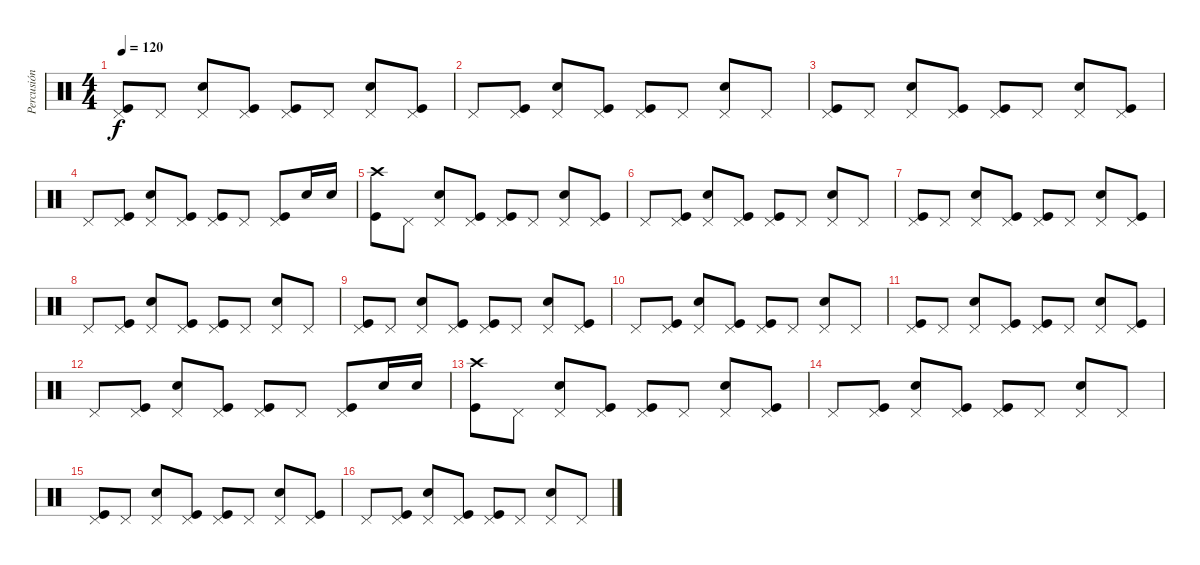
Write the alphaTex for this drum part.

\track ("Percusión" "Percusión") {instrument percussion}
\staff {score}
\articulation defaults
\ts (4 4)
\tempo 120
\clef neutral
\ks c
("Pedal Hi-Hat (hit)" "Kick (hit)").8{dy f} "Pedal Hi-Hat (hit)".8 ("Pedal Hi-Hat (hit)" "Electric Snare (hit)").8 ("Pedal Hi-Hat (hit)" "Kick (hit)").8 ("Pedal Hi-Hat (hit)" "Kick (hit)").8 "Pedal Hi-Hat (hit)".8 ("Pedal Hi-Hat (hit)" "Electric Snare (hit)").8 ("Pedal Hi-Hat (hit)" "Kick (hit)").8 |
"Pedal Hi-Hat (hit)".8 ("Pedal Hi-Hat (hit)" "Kick (hit)").8 ("Pedal Hi-Hat (hit)" "Electric Snare (hit)").8 ("Pedal Hi-Hat (hit)" "Kick (hit)").8 ("Pedal Hi-Hat (hit)" "Kick (hit)").8 "Pedal Hi-Hat (hit)".8 ("Pedal Hi-Hat (hit)" "Electric Snare (hit)").8 "Pedal Hi-Hat (hit)".8 |
("Pedal Hi-Hat (hit)" "Kick (hit)").8 "Pedal Hi-Hat (hit)".8 ("Pedal Hi-Hat (hit)" "Electric Snare (hit)").8 ("Pedal Hi-Hat (hit)" "Kick (hit)").8 ("Pedal Hi-Hat (hit)" "Kick (hit)").8 "Pedal Hi-Hat (hit)".8 ("Pedal Hi-Hat (hit)" "Electric Snare (hit)").8 ("Pedal Hi-Hat (hit)" "Kick (hit)").8 |
"Pedal Hi-Hat (hit)".8 ("Pedal Hi-Hat (hit)" "Kick (hit)").8 ("Pedal Hi-Hat (hit)" "Electric Snare (hit)").8 ("Pedal Hi-Hat (hit)" "Kick (hit)").8 ("Pedal Hi-Hat (hit)" "Kick (hit)").8 "Pedal Hi-Hat (hit)".8 ("Pedal Hi-Hat (hit)" "Kick (hit)").8 "Electric Snare (hit)".16 "Electric Snare (hit)".16 |
("Crash high (hit)" "Kick (hit)").8 "Pedal Hi-Hat (hit)".8 ("Pedal Hi-Hat (hit)" "Electric Snare (hit)").8 ("Pedal Hi-Hat (hit)" "Kick (hit)").8 ("Pedal Hi-Hat (hit)" "Kick (hit)").8 "Pedal Hi-Hat (hit)".8 ("Pedal Hi-Hat (hit)" "Electric Snare (hit)").8 ("Pedal Hi-Hat (hit)" "Kick (hit)").8 |
"Pedal Hi-Hat (hit)".8 ("Pedal Hi-Hat (hit)" "Kick (hit)").8 ("Pedal Hi-Hat (hit)" "Electric Snare (hit)").8 ("Pedal Hi-Hat (hit)" "Kick (hit)").8 ("Pedal Hi-Hat (hit)" "Kick (hit)").8 "Pedal Hi-Hat (hit)".8 ("Pedal Hi-Hat (hit)" "Electric Snare (hit)").8 "Pedal Hi-Hat (hit)".8 |
("Pedal Hi-Hat (hit)" "Kick (hit)").8 "Pedal Hi-Hat (hit)".8 ("Pedal Hi-Hat (hit)" "Electric Snare (hit)").8 ("Pedal Hi-Hat (hit)" "Kick (hit)").8 ("Pedal Hi-Hat (hit)" "Kick (hit)").8 "Pedal Hi-Hat (hit)".8 ("Pedal Hi-Hat (hit)" "Electric Snare (hit)").8 ("Pedal Hi-Hat (hit)" "Kick (hit)").8 |
"Pedal Hi-Hat (hit)".8 ("Pedal Hi-Hat (hit)" "Kick (hit)").8 ("Pedal Hi-Hat (hit)" "Electric Snare (hit)").8 ("Pedal Hi-Hat (hit)" "Kick (hit)").8 ("Pedal Hi-Hat (hit)" "Kick (hit)").8 "Pedal Hi-Hat (hit)".8 ("Pedal Hi-Hat (hit)" "Electric Snare (hit)").8 "Pedal Hi-Hat (hit)".8 |
("Pedal Hi-Hat (hit)" "Kick (hit)").8 "Pedal Hi-Hat (hit)".8 ("Pedal Hi-Hat (hit)" "Electric Snare (hit)").8 ("Pedal Hi-Hat (hit)" "Kick (hit)").8 ("Pedal Hi-Hat (hit)" "Kick (hit)").8 "Pedal Hi-Hat (hit)".8 ("Pedal Hi-Hat (hit)" "Electric Snare (hit)").8 ("Pedal Hi-Hat (hit)" "Kick (hit)").8 |
"Pedal Hi-Hat (hit)".8 ("Pedal Hi-Hat (hit)" "Kick (hit)").8 ("Pedal Hi-Hat (hit)" "Electric Snare (hit)").8 ("Pedal Hi-Hat (hit)" "Kick (hit)").8 ("Pedal Hi-Hat (hit)" "Kick (hit)").8 "Pedal Hi-Hat (hit)".8 ("Pedal Hi-Hat (hit)" "Electric Snare (hit)").8 "Pedal Hi-Hat (hit)".8 |
("Pedal Hi-Hat (hit)" "Kick (hit)").8 "Pedal Hi-Hat (hit)".8 ("Pedal Hi-Hat (hit)" "Electric Snare (hit)").8 ("Pedal Hi-Hat (hit)" "Kick (hit)").8 ("Pedal Hi-Hat (hit)" "Kick (hit)").8 "Pedal Hi-Hat (hit)".8 ("Pedal Hi-Hat (hit)" "Electric Snare (hit)").8 ("Pedal Hi-Hat (hit)" "Kick (hit)").8 |
"Pedal Hi-Hat (hit)".8 ("Pedal Hi-Hat (hit)" "Kick (hit)").8 ("Pedal Hi-Hat (hit)" "Electric Snare (hit)").8 ("Pedal Hi-Hat (hit)" "Kick (hit)").8 ("Pedal Hi-Hat (hit)" "Kick (hit)").8 "Pedal Hi-Hat (hit)".8 ("Pedal Hi-Hat (hit)" "Kick (hit)").8 "Electric Snare (hit)".16 "Electric Snare (hit)".16 |
("Crash high (hit)" "Kick (hit)").8 "Pedal Hi-Hat (hit)".8 ("Pedal Hi-Hat (hit)" "Electric Snare (hit)").8 ("Pedal Hi-Hat (hit)" "Kick (hit)").8 ("Pedal Hi-Hat (hit)" "Kick (hit)").8 "Pedal Hi-Hat (hit)".8 ("Pedal Hi-Hat (hit)" "Electric Snare (hit)").8 ("Pedal Hi-Hat (hit)" "Kick (hit)").8 |
"Pedal Hi-Hat (hit)".8 ("Pedal Hi-Hat (hit)" "Kick (hit)").8 ("Pedal Hi-Hat (hit)" "Electric Snare (hit)").8 ("Pedal Hi-Hat (hit)" "Kick (hit)").8 ("Pedal Hi-Hat (hit)" "Kick (hit)").8 "Pedal Hi-Hat (hit)".8 ("Pedal Hi-Hat (hit)" "Electric Snare (hit)").8 "Pedal Hi-Hat (hit)".8 |
("Pedal Hi-Hat (hit)" "Kick (hit)").8 "Pedal Hi-Hat (hit)".8 ("Pedal Hi-Hat (hit)" "Electric Snare (hit)").8 ("Pedal Hi-Hat (hit)" "Kick (hit)").8 ("Pedal Hi-Hat (hit)" "Kick (hit)").8 "Pedal Hi-Hat (hit)".8 ("Pedal Hi-Hat (hit)" "Electric Snare (hit)").8 ("Pedal Hi-Hat (hit)" "Kick (hit)").8 |
"Pedal Hi-Hat (hit)".8 ("Pedal Hi-Hat (hit)" "Kick (hit)").8 ("Pedal Hi-Hat (hit)" "Electric Snare (hit)").8 ("Pedal Hi-Hat (hit)" "Kick (hit)").8 ("Pedal Hi-Hat (hit)" "Kick (hit)").8 "Pedal Hi-Hat (hit)".8 ("Pedal Hi-Hat (hit)" "Electric Snare (hit)").8 "Pedal Hi-Hat (hit)".8
